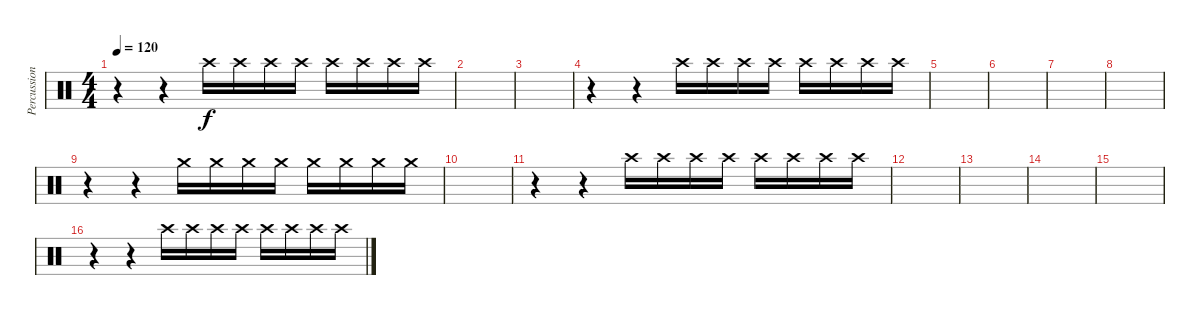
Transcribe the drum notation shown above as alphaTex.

\track ("Percussions" "Percussion") {instrument percussion}
\staff {score}
\articulation defaults
\ts (4 4)
\tempo 120
\clef neutral
\ks c
r.4{dy f volume 0} r.4 "Crash high (hit)".16{volume 5} "Crash high (hit)".16 "Crash high (hit)".16 "Crash high (hit)".16 "Crash high (hit)".16 "Crash high (hit)".16 "Crash high (hit)".16 "Crash high (hit)".16 |
|
|
r.4{volume 0} r.4 "Crash high (hit)".16{volume 5} "Crash high (hit)".16 "Crash high (hit)".16 "Crash high (hit)".16 "Crash high (hit)".16 "Crash high (hit)".16 "Crash high (hit)".16 "Crash high (hit)".16 |
|
|
|
|
r.4{volume 0} r.4 "Crash medium (hit)".16{volume 5} "Crash medium (hit)".16 "Crash medium (hit)".16 "Crash medium (hit)".16 "Crash medium (hit)".16 "Crash medium (hit)".16 "Crash medium (hit)".16 "Crash medium (hit)".16 |
|
r.4{volume 0} r.4 "Crash high (hit)".16{volume 5} "Crash high (hit)".16 "Crash high (hit)".16 "Crash high (hit)".16 "Crash high (hit)".16 "Crash high (hit)".16 "Crash high (hit)".16 "Crash high (hit)".16 |
|
|
|
|
r.4{volume 0} r.4 "Crash high (hit)".16{volume 5} "Crash high (hit)".16 "Crash high (hit)".16 "Crash high (hit)".16 "Crash high (hit)".16 "Crash high (hit)".16 "Crash high (hit)".16 "Crash high (hit)".16
